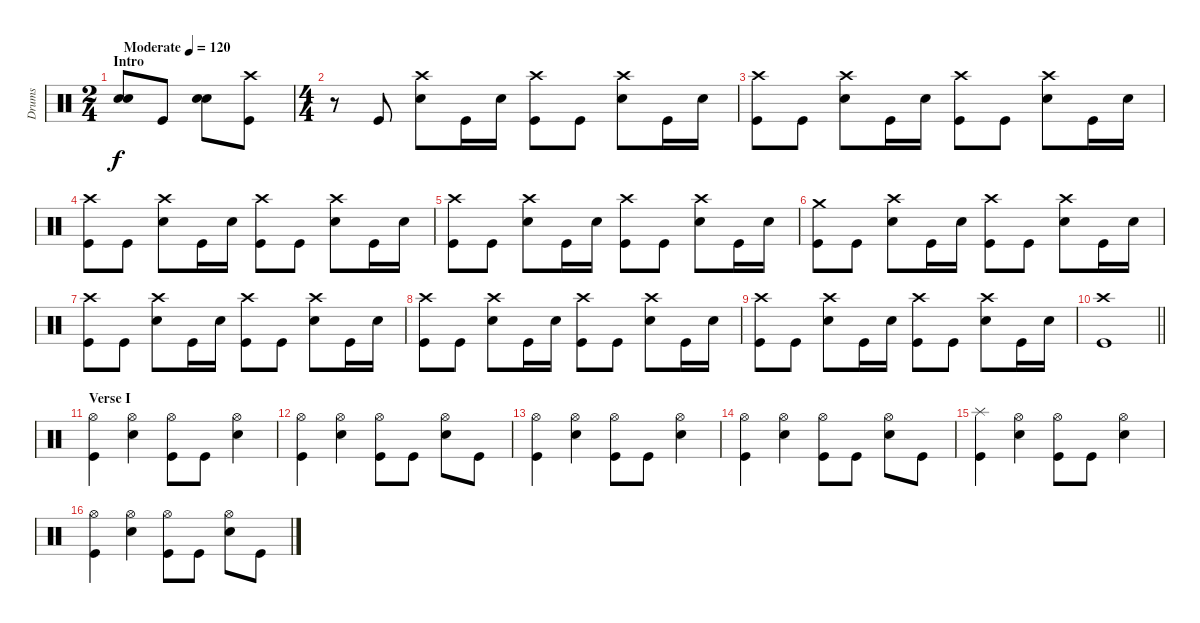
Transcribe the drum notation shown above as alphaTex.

\track ("Drums" "Drums") {instrument percussion}
\staff {score}
\articulation defaults
\ts (2 4)
\section ("" "Intro")
\tempo (120 "Moderate")
\clef neutral
\ks c
("Snare (hit) 2" "Snare (hit) 2").8{dy f} "Kick (hit)".8 ("Snare (hit) 2" "Snare (hit) 2").8 ("Kick (hit)" "Crash high (hit)").8 |
\ts (4 4)
r.8 "Kick (hit)".8 ("Snare (hit) 2" "Crash high (hit)").8 "Kick (hit)".16 "Snare (hit) 2".16 ("Kick (hit)" "Crash high (hit)").8 "Kick (hit)".8 ("Snare (hit) 2" "Crash high (hit)").8 "Kick (hit)".16 "Snare (hit) 2".16 |
("Kick (hit)" "Crash high (hit)").8 "Kick (hit)".8 ("Snare (hit) 2" "Crash high (hit)").8 "Kick (hit)".16 "Snare (hit) 2".16 ("Kick (hit)" "Crash high (hit)").8 "Kick (hit)".8 ("Snare (hit) 2" "Crash high (hit)").8 "Kick (hit)".16 "Snare (hit) 2".16 |
("Kick (hit)" "Crash high (hit)").8 "Kick (hit)".8 ("Snare (hit) 2" "Crash high (hit)").8 "Kick (hit)".16 "Snare (hit) 2".16 ("Kick (hit)" "Crash high (hit)").8 "Kick (hit)".8 ("Snare (hit) 2" "Crash high (hit)").8 "Kick (hit)".16 "Snare (hit) 2".16 |
("Kick (hit)" "Crash high (hit)").8 "Kick (hit)".8 ("Snare (hit) 2" "Crash high (hit)").8 "Kick (hit)".16 "Snare (hit) 2".16 ("Kick (hit)" "Crash high (hit)").8 "Kick (hit)".8 ("Snare (hit) 2" "Crash high (hit)").8 "Kick (hit)".16 "Snare (hit) 2".16 |
("Kick (hit)" "Crash medium (hit)").8 "Kick (hit)".8 ("Snare (hit) 2" "Crash high (hit)").8 "Kick (hit)".16 "Snare (hit) 2".16 ("Kick (hit)" "Crash high (hit)").8 "Kick (hit)".8 ("Snare (hit) 2" "Crash high (hit)").8 "Kick (hit)".16 "Snare (hit) 2".16 |
("Kick (hit)" "Crash high (hit)").8 "Kick (hit)".8 ("Snare (hit) 2" "Crash high (hit)").8 "Kick (hit)".16 "Snare (hit) 2".16 ("Kick (hit)" "Crash high (hit)").8 "Kick (hit)".8 ("Snare (hit) 2" "Crash high (hit)").8 "Kick (hit)".16 "Snare (hit) 2".16 |
("Kick (hit)" "Crash high (hit)").8 "Kick (hit)".8 ("Snare (hit) 2" "Crash high (hit)").8 "Kick (hit)".16 "Snare (hit) 2".16 ("Kick (hit)" "Crash high (hit)").8 "Kick (hit)".8 ("Snare (hit) 2" "Crash high (hit)").8 "Kick (hit)".16 "Snare (hit) 2".16 |
("Kick (hit)" "Crash high (hit)").8 "Kick (hit)".8 ("Snare (hit) 2" "Crash high (hit)").8 "Kick (hit)".16 "Snare (hit) 2".16 ("Kick (hit)" "Crash high (hit)").8 "Kick (hit)".8 ("Snare (hit) 2" "Crash high (hit)").8 "Kick (hit)".16 "Snare (hit) 2".16 |
\barLineRight lightlight
("Crash high (hit)" "Kick (hit)").1 |
\section ("" "Verse I")
("Kick (hit)" "Hi-Hat (open)").4 ("Snare (hit) 2" "Hi-Hat (open)").4 ("Kick (hit)" "Hi-Hat (open)").8 "Kick (hit)".8 ("Snare (hit) 2" "Hi-Hat (open)").4 |
("Kick (hit)" "Hi-Hat (open)").4 ("Snare (hit) 2" "Hi-Hat (open)").4 ("Kick (hit)" "Hi-Hat (open)").8 "Kick (hit)".8 ("Snare (hit) 2" "Hi-Hat (open)").8 "Kick (hit)".8 |
("Kick (hit)" "Hi-Hat (open)").4 ("Snare (hit) 2" "Hi-Hat (open)").4 ("Kick (hit)" "Hi-Hat (open)").8 "Kick (hit)".8 ("Snare (hit) 2" "Hi-Hat (open)").4 |
("Kick (hit)" "Hi-Hat (open)").4 ("Snare (hit) 2" "Hi-Hat (open)").4 ("Kick (hit)" "Hi-Hat (open)").8 "Kick (hit)".8 ("Snare (hit) 2" "Hi-Hat (open)").8 "Kick (hit)".8 |
("Kick (hit)" "Splash (hit)").4 ("Snare (hit) 2" "Hi-Hat (open)").4 ("Kick (hit)" "Hi-Hat (open)").8 "Kick (hit)".8 ("Snare (hit) 2" "Hi-Hat (open)").4 |
("Kick (hit)" "Hi-Hat (open)").4 ("Snare (hit) 2" "Hi-Hat (open)").4 ("Kick (hit)" "Hi-Hat (open)").8 "Kick (hit)".8 ("Snare (hit) 2" "Hi-Hat (open)").8 "Kick (hit)".8
